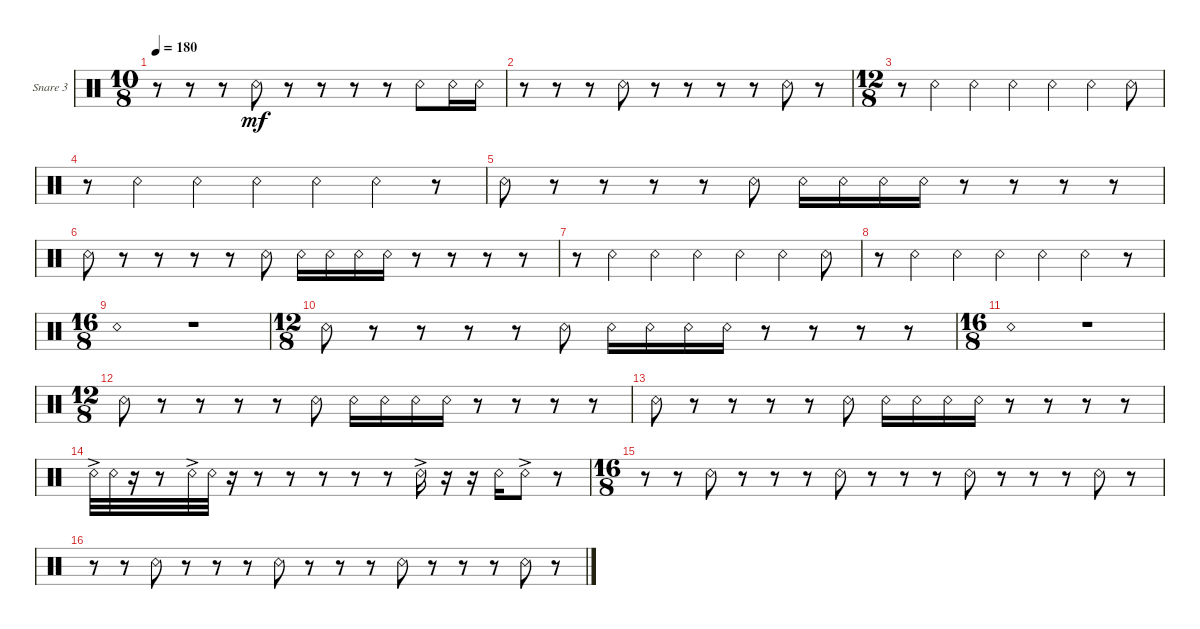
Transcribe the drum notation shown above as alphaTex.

\defaultSystemsLayout 4
\bracketExtendMode groupsimilarinstruments
\firstSystemTrackNameOrientation horizontal
\otherSystemsTrackNameOrientation horizontal
\track ("Snare 3" "Snare 3") {instrument percussion}
\staff {score}
\articulation defaults
\ts (10 8)
\tempo 180
\clef neutral
\ks c
r.8{dy mf} r.8 r.8 "Snare (rim shot)".8 r.8 r.8 r.8 r.8 "Snare (rim shot)".8 "Snare (rim shot)".16 "Snare (rim shot)".16 |
r.8 r.8 r.8 "Snare (rim shot)".8 r.8 r.8 r.8 r.8 "Snare (rim shot)".8 r.8 |
\ts (12 8)
r.8 "Snare (rim shot)".4 "Snare (rim shot)".4 "Snare (rim shot)".4 "Snare (rim shot)".4 "Snare (rim shot)".4 "Snare (rim shot)".8 |
r.8 "Snare (rim shot)".4 "Snare (rim shot)".4 "Snare (rim shot)".4 "Snare (rim shot)".4 "Snare (rim shot)".4 r.8 |
"Snare (rim shot)".8 r.8 r.8 r.8 r.8 "Snare (rim shot)".8 "Snare (rim shot)".16 "Snare (rim shot)".16 "Snare (rim shot)".16 "Snare (rim shot)".16 r.8 r.8 r.8 r.8 |
"Snare (rim shot)".8 r.8 r.8 r.8 r.8 "Snare (rim shot)".8 "Snare (rim shot)".16 "Snare (rim shot)".16 "Snare (rim shot)".16 "Snare (rim shot)".16 r.8 r.8 r.8 r.8 |
r.8 "Snare (rim shot)".4 "Snare (rim shot)".4 "Snare (rim shot)".4 "Snare (rim shot)".4 "Snare (rim shot)".4 "Snare (rim shot)".8 |
r.8 "Snare (rim shot)".4 "Snare (rim shot)".4 "Snare (rim shot)".4 "Snare (rim shot)".4 "Snare (rim shot)".4 r.8 |
\ts (16 8)
"Snare (rim shot)".1 r.1 |
\ts (12 8)
"Snare (rim shot)".8 r.8 r.8 r.8 r.8 "Snare (rim shot)".8 "Snare (rim shot)".16 "Snare (rim shot)".16 "Snare (rim shot)".16 "Snare (rim shot)".16 r.8 r.8 r.8 r.8 |
\ts (16 8)
"Snare (rim shot)".1 r.1 |
\ts (12 8)
"Snare (rim shot)".8 r.8 r.8 r.8 r.8 "Snare (rim shot)".8 "Snare (rim shot)".16 "Snare (rim shot)".16 "Snare (rim shot)".16 "Snare (rim shot)".16 r.8 r.8 r.8 r.8 |
"Snare (rim shot)".8 r.8 r.8 r.8 r.8 "Snare (rim shot)".8 "Snare (rim shot)".16 "Snare (rim shot)".16 "Snare (rim shot)".16 "Snare (rim shot)".16 r.8 r.8 r.8 r.8 |
"Snare (rim shot)"{ac}.32 "Snare (rim shot)".32 r.16 r.8 "Snare (rim shot)"{ac}.32 "Snare (rim shot)".32 r.16 r.8 r.8 r.8 r.8 r.8 "Snare (rim shot)"{ac}.16 r.16 r.16 "Snare (rim shot)".16 "Snare (rim shot)"{ac}.8 r.8 |
\ts (16 8)
\scale
0.262911 r.8 r.8 "Snare (rim shot)".8 r.8 r.8 r.8 "Snare (rim shot)".8 r.8 r.8 r.8 "Snare (rim shot)".8 r.8 r.8 r.8 "Snare (rim shot)".8 r.8 |
\scale
0.262911 r.8 r.8 "Snare (rim shot)".8 r.8 r.8 r.8 "Snare (rim shot)".8 r.8 r.8 r.8 "Snare (rim shot)".8 r.8 r.8 r.8 "Snare (rim shot)".8 r.8
